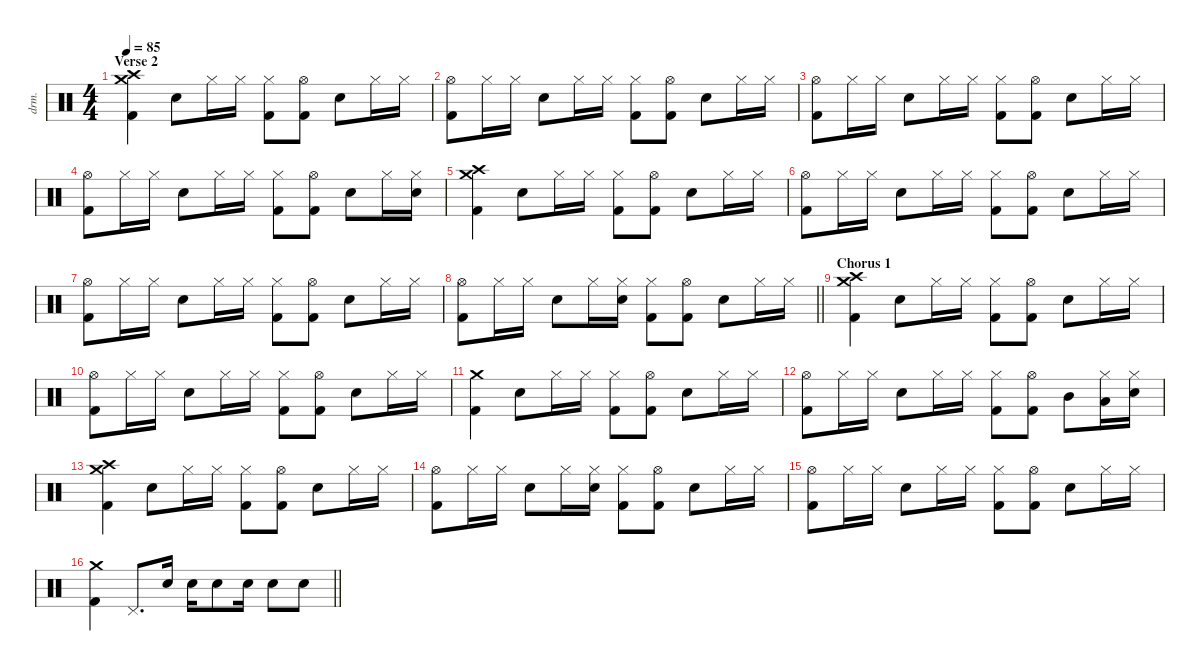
\defaultSystemsLayout 4
\hideDynamics
\bracketExtendMode nobrackets
\otherSystemsTrackNameOrientation horizontal
\track ("Drums" "drm.") {defaultSystemsLayout 4 instrument percussion}
\staff {score}
\articulation defaults
\ts (4 4)
\section ("" "Verse 2")
\tempo 85
\clef neutral
\ks c
("Crash medium (hit)" "Crash high (hit)" "Kick (hit) 2").4{dy f} "Snare (hit) 2".8 "Hi-Hat (closed)".16 "Hi-Hat (closed)".16 ("Hi-Hat (closed)" "Kick (hit) 2").8 ("Hi-Hat (open)" "Kick (hit) 2").8 "Snare (hit) 2".8 "Hi-Hat (closed)".16 "Hi-Hat (closed)".16 |
("Hi-Hat (open)" "Kick (hit) 2").8 "Hi-Hat (closed)".16 "Hi-Hat (closed)".16 "Snare (hit) 2".8 "Hi-Hat (closed)".16 "Hi-Hat (closed)".16 ("Hi-Hat (closed)" "Kick (hit) 2").8 ("Hi-Hat (open)" "Kick (hit) 2").8 "Snare (hit) 2".8 "Hi-Hat (closed)".16 "Hi-Hat (closed)".16 |
("Hi-Hat (open)" "Kick (hit) 2").8 "Hi-Hat (closed)".16 "Hi-Hat (closed)".16 "Snare (hit) 2".8 "Hi-Hat (closed)".16 "Hi-Hat (closed)".16 ("Hi-Hat (closed)" "Kick (hit) 2").8 ("Hi-Hat (open)" "Kick (hit) 2").8 "Snare (hit) 2".8 "Hi-Hat (closed)".16 "Hi-Hat (closed)".16 |
("Hi-Hat (open)" "Kick (hit) 2").8 "Hi-Hat (closed)".16 "Hi-Hat (closed)".16 "Snare (hit) 2".8 "Hi-Hat (closed)".16 "Hi-Hat (closed)".16 ("Hi-Hat (closed)" "Kick (hit) 2").8 ("Hi-Hat (open)" "Kick (hit) 2").8 "Snare (hit) 2".8 "Hi-Hat (closed)".16 ("Hi-Hat (closed)" "Snare (hit) 2").16 |
("Crash medium (hit)" "Crash high (hit)" "Kick (hit) 2").4 "Snare (hit) 2".8 "Hi-Hat (closed)".16 "Hi-Hat (closed)".16 ("Hi-Hat (closed)" "Kick (hit) 2").8 ("Hi-Hat (open)" "Kick (hit) 2").8 "Snare (hit) 2".8 "Hi-Hat (closed)".16 "Hi-Hat (closed)".16 |
("Hi-Hat (open)" "Kick (hit) 2").8 "Hi-Hat (closed)".16 "Hi-Hat (closed)".16 "Snare (hit) 2".8 "Hi-Hat (closed)".16 "Hi-Hat (closed)".16 ("Hi-Hat (closed)" "Kick (hit) 2").8 ("Hi-Hat (open)" "Kick (hit) 2").8 "Snare (hit) 2".8 "Hi-Hat (closed)".16 "Hi-Hat (closed)".16 |
("Hi-Hat (open)" "Kick (hit) 2").8 "Hi-Hat (closed)".16 "Hi-Hat (closed)".16 "Snare (hit) 2".8 "Hi-Hat (closed)".16 "Hi-Hat (closed)".16 ("Hi-Hat (closed)" "Kick (hit) 2").8 ("Hi-Hat (open)" "Kick (hit) 2").8 "Snare (hit) 2".8 "Hi-Hat (closed)".16 "Hi-Hat (closed)".16 |
\barLineRight lightlight
("Hi-Hat (open)" "Kick (hit) 2").8 "Hi-Hat (closed)".16 "Hi-Hat (closed)".16 "Snare (hit) 2".8 "Hi-Hat (closed)".16 ("Hi-Hat (closed)" "Snare (hit) 2").16 ("Hi-Hat (closed)" "Kick (hit) 2").8 ("Hi-Hat (open)" "Kick (hit) 2").8 "Snare (hit) 2".8 "Hi-Hat (closed)".16 "Hi-Hat (closed)".16 |
\section ("" "Chorus 1")
("Crash medium (hit)" "Crash high (hit)" "Kick (hit) 2").4 "Snare (hit) 2".8 "Hi-Hat (closed)".16 "Hi-Hat (closed)".16 ("Hi-Hat (closed)" "Kick (hit) 2").8 ("Hi-Hat (open)" "Kick (hit) 2").8 "Snare (hit) 2".8 "Hi-Hat (closed)".16 "Hi-Hat (closed)".16 |
("Hi-Hat (open)" "Kick (hit) 2").8 "Hi-Hat (closed)".16 "Hi-Hat (closed)".16 "Snare (hit) 2".8 "Hi-Hat (closed)".16 "Hi-Hat (closed)".16 ("Hi-Hat (closed)" "Kick (hit) 2").8 ("Hi-Hat (open)" "Kick (hit) 2").8 "Snare (hit) 2".8 "Hi-Hat (closed)".16 "Hi-Hat (closed)".16 |
("Crash medium (hit)" "Kick (hit) 2").4 "Snare (hit) 2".8 "Hi-Hat (closed)".16 "Hi-Hat (closed)".16 ("Hi-Hat (closed)" "Kick (hit) 2").8 ("Hi-Hat (open)" "Kick (hit) 2").8 "Snare (hit) 2".8 "Hi-Hat (closed)".16 "Hi-Hat (closed)".16 |
("Hi-Hat (open)" "Kick (hit) 2").8 "Hi-Hat (closed)".16 "Hi-Hat (closed)".16 "Snare (hit) 2".8 "Hi-Hat (closed)".16 "Hi-Hat (closed)".16 ("Hi-Hat (closed)" "Kick (hit) 2").8 ("Hi-Hat (open)" "Kick (hit) 2").8 "Mid Tom (hit)".8 ("Hi-Hat (closed)" "Low Tom (hit)").16 ("Hi-Hat (closed)" "Snare (hit) 2").16 |
("Crash medium (hit)" "Crash high (hit)" "Kick (hit) 2").4 "Snare (hit) 2".8 "Hi-Hat (closed)".16 "Hi-Hat (closed)".16 ("Hi-Hat (closed)" "Kick (hit) 2").8 ("Hi-Hat (open)" "Kick (hit) 2").8 "Snare (hit) 2".8 "Hi-Hat (closed)".16 "Hi-Hat (closed)".16 |
("Hi-Hat (open)" "Kick (hit) 2").8 "Hi-Hat (closed)".16 "Hi-Hat (closed)".16 "Snare (hit) 2".8 "Hi-Hat (closed)".16 ("Hi-Hat (closed)" "Snare (hit) 2").16 ("Hi-Hat (closed)" "Kick (hit) 2").8 ("Hi-Hat (open)" "Kick (hit) 2").8 "Snare (hit) 2".8 "Hi-Hat (closed)".16 "Hi-Hat (closed)".16 |
("Hi-Hat (open)" "Kick (hit) 2").8 "Hi-Hat (closed)".16 "Hi-Hat (closed)".16 "Snare (hit) 2".8 "Hi-Hat (closed)".16 "Hi-Hat (closed)".16 ("Hi-Hat (closed)" "Kick (hit) 2").8 ("Hi-Hat (open)" "Kick (hit) 2").8 "Snare (hit) 2".8 "Hi-Hat (closed)".16 "Hi-Hat (closed)".16 |
\barLineRight lightlight
("Crash medium (hit)" "Kick (hit) 2").4{dy ff} "Pedal Hi-Hat (hit)".8{d} "Snare (hit) 2".16{dy p} "Snare (hit) 2".16{dy f} "Snare (hit) 2".8 "Snare (hit) 2".16{dy mf} "Snare (hit) 2".8{dy f} "Snare (hit) 2".8{dy ff}
